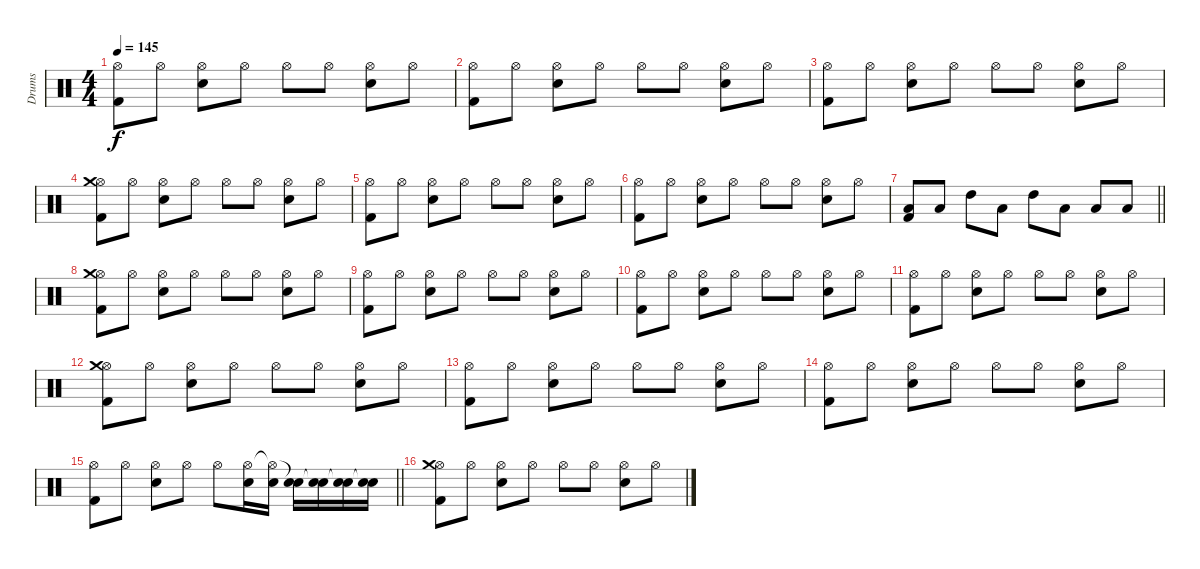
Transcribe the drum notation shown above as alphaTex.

\track ("Drums" "Drums") {instrument percussion}
\staff {score}
\articulation defaults
\ts (4 4)
\tempo 145
\clef neutral
\ks c
("Hi-Hat (open)" "Kick (hit) 2").8{dy f} "Hi-Hat (open)".8 ("Hi-Hat (open)" "Electric Snare (hit)").8 "Hi-Hat (open)".8 "Hi-Hat (open)".8 "Hi-Hat (open)".8 ("Hi-Hat (open)" "Electric Snare (hit)").8 "Hi-Hat (open)".8 |
("Hi-Hat (open)" "Kick (hit) 2").8 "Hi-Hat (open)".8 ("Hi-Hat (open)" "Electric Snare (hit)").8 "Hi-Hat (open)".8 "Hi-Hat (open)".8 "Hi-Hat (open)".8 ("Hi-Hat (open)" "Electric Snare (hit)").8 "Hi-Hat (open)".8 |
("Hi-Hat (open)" "Kick (hit) 2").8 "Hi-Hat (open)".8 ("Hi-Hat (open)" "Electric Snare (hit)").8 "Hi-Hat (open)".8 "Hi-Hat (open)".8 "Hi-Hat (open)".8 ("Hi-Hat (open)" "Electric Snare (hit)").8 "Hi-Hat (open)".8 |
("Hi-Hat (open)" "Kick (hit) 2" "Crash medium (hit)").8 "Hi-Hat (open)".8 ("Hi-Hat (open)" "Electric Snare (hit)").8 "Hi-Hat (open)".8 "Hi-Hat (open)".8 "Hi-Hat (open)".8 ("Hi-Hat (open)" "Electric Snare (hit)").8 "Hi-Hat (open)".8 |
("Hi-Hat (open)" "Kick (hit) 2").8 "Hi-Hat (open)".8 ("Hi-Hat (open)" "Electric Snare (hit)").8 "Hi-Hat (open)".8 "Hi-Hat (open)".8 "Hi-Hat (open)".8 ("Hi-Hat (open)" "Electric Snare (hit)").8 "Hi-Hat (open)".8 |
("Hi-Hat (open)" "Kick (hit) 2").8 "Hi-Hat (open)".8 ("Hi-Hat (open)" "Electric Snare (hit)").8 "Hi-Hat (open)".8 "Hi-Hat (open)".8 "Hi-Hat (open)".8 ("Hi-Hat (open)" "Electric Snare (hit)").8 "Hi-Hat (open)".8 |
\barLineRight lightlight
("Low Tom (hit)" "Kick (hit) 2").8 "Low Tom (hit)".8 "High Tom (hit)".8 "Low Tom (hit)".8 "High Tom (hit)".8 "Low Tom (hit)".8 "Low Tom (hit)".8 "Low Tom (hit)".8 |
("Hi-Hat (open)" "Kick (hit) 2" "Crash medium (hit)").8 "Hi-Hat (open)".8 ("Hi-Hat (open)" "Electric Snare (hit)").8 "Hi-Hat (open)".8 "Hi-Hat (open)".8 "Hi-Hat (open)".8 ("Hi-Hat (open)" "Electric Snare (hit)").8 "Hi-Hat (open)".8 |
("Hi-Hat (open)" "Kick (hit) 2").8 "Hi-Hat (open)".8 ("Hi-Hat (open)" "Electric Snare (hit)").8 "Hi-Hat (open)".8 "Hi-Hat (open)".8 "Hi-Hat (open)".8 ("Hi-Hat (open)" "Electric Snare (hit)").8 "Hi-Hat (open)".8 |
("Hi-Hat (open)" "Kick (hit) 2").8 "Hi-Hat (open)".8 ("Hi-Hat (open)" "Electric Snare (hit)").8 "Hi-Hat (open)".8 "Hi-Hat (open)".8 "Hi-Hat (open)".8 ("Hi-Hat (open)" "Electric Snare (hit)").8 "Hi-Hat (open)".8 |
("Hi-Hat (open)" "Kick (hit) 2").8 "Hi-Hat (open)".8 ("Hi-Hat (open)" "Electric Snare (hit)").8 "Hi-Hat (open)".8 "Hi-Hat (open)".8 "Hi-Hat (open)".8 ("Hi-Hat (open)" "Electric Snare (hit)").8 "Hi-Hat (open)".8 |
("Hi-Hat (open)" "Kick (hit) 2" "Crash medium (hit)").8 "Hi-Hat (open)".8 ("Hi-Hat (open)" "Electric Snare (hit)").8 "Hi-Hat (open)".8 "Hi-Hat (open)".8 "Hi-Hat (open)".8 ("Hi-Hat (open)" "Electric Snare (hit)").8 "Hi-Hat (open)".8 |
("Hi-Hat (open)" "Kick (hit) 2").8 "Hi-Hat (open)".8 ("Hi-Hat (open)" "Electric Snare (hit)").8 "Hi-Hat (open)".8 "Hi-Hat (open)".8 "Hi-Hat (open)".8 ("Hi-Hat (open)" "Electric Snare (hit)").8 "Hi-Hat (open)".8 |
("Hi-Hat (open)" "Kick (hit) 2").8 "Hi-Hat (open)".8 ("Hi-Hat (open)" "Electric Snare (hit)").8 "Hi-Hat (open)".8 "Hi-Hat (open)".8 "Hi-Hat (open)".8 ("Hi-Hat (open)" "Electric Snare (hit)").8 "Hi-Hat (open)".8 |
\barLineRight lightlight
("Hi-Hat (open)" "Kick (hit) 2").8 "Hi-Hat (open)".8 ("Hi-Hat (open)" "Electric Snare (hit)").8 "Hi-Hat (open)".8 "Hi-Hat (open)".8 ("Hi-Hat (open)" "Electric Snare (hit)").16 ("Hi-Hat (open)"{t} "Electric Snare (hit)").16 ("Snare (hit)"{t} "Electric Snare (hit)").16 ("Snare (hit)"{t} "Electric Snare (hit)").16 ("Snare (hit)"{t} "Electric Snare (hit)").16 ("Snare (hit)"{t} "Electric Snare (hit)").16 |
("Hi-Hat (open)" "Kick (hit) 2" "Crash medium (hit)").8 "Hi-Hat (open)".8 ("Hi-Hat (open)" "Electric Snare (hit)").8 "Hi-Hat (open)".8 "Hi-Hat (open)".8 "Hi-Hat (open)".8 ("Hi-Hat (open)" "Electric Snare (hit)").8 "Hi-Hat (open)".8
